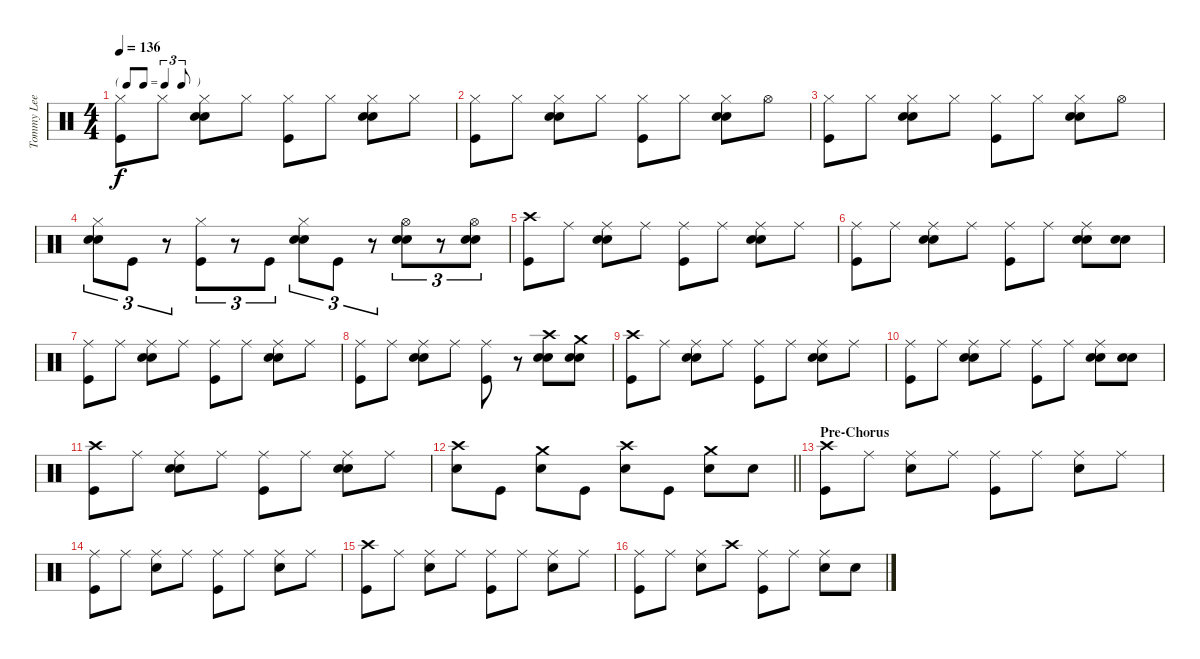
\track ("Tommy Lee" "Tommy Lee") {instrument percussion}
\staff {score}
\articulation defaults
\ts (4 4)
\tf triplet8th
\tempo 136
\clef neutral
\ks c
("Hi-Hat (closed)" "Kick (hit)").8{dy f} "Hi-Hat (closed)".8 ("Hi-Hat (closed)" "Hand Clap (hit)" "Snare (hit) 2").8 "Hi-Hat (closed)".8 ("Hi-Hat (closed)" "Kick (hit)").8 "Hi-Hat (closed)".8 ("Hi-Hat (closed)" "Hand Clap (hit)" "Snare (hit) 2").8 "Hi-Hat (closed)".8 |
("Hi-Hat (closed)" "Kick (hit)").8 "Hi-Hat (closed)".8 ("Hi-Hat (closed)" "Hand Clap (hit)" "Snare (hit) 2").8 "Hi-Hat (closed)".8 ("Hi-Hat (closed)" "Kick (hit)").8 "Hi-Hat (closed)".8 ("Hi-Hat (closed)" "Hand Clap (hit)" "Snare (hit) 2").8 "Hi-Hat (open)".8 |
("Hi-Hat (closed)" "Kick (hit)").8 "Hi-Hat (closed)".8 ("Hi-Hat (closed)" "Hand Clap (hit)" "Snare (hit) 2").8 "Hi-Hat (closed)".8 ("Hi-Hat (closed)" "Kick (hit)").8 "Hi-Hat (closed)".8 ("Hi-Hat (closed)" "Hand Clap (hit)" "Snare (hit) 2").8 "Hi-Hat (open)".8 |
("Hi-Hat (closed)" "Hand Clap (hit)" "Snare (hit) 2").8{tu (3 2)} "Kick (hit)".8{tu (3 2)} r.8{tu (3 2)} ("Hi-Hat (closed)" "Kick (hit)").8{tu (3 2)} r.8{tu (3 2)} "Kick (hit)".8{tu (3 2)} ("Hi-Hat (closed)" "Hand Clap (hit)" "Snare (hit) 2").8{tu (3 2)} "Kick (hit)".8{tu (3 2)} r.8{tu (3 2)} ("Hi-Hat (open)" "Hand Clap (hit)" "Snare (hit) 2").8{tu (3 2)} r.8{tu (3 2)} ("Hi-Hat (open)" "Hand Clap (hit)" "Snare (hit) 2").8{tu (3 2)} |
("Crash high (hit)" "Kick (hit)").8 "Ride (middle)".8 ("Ride (middle)" "Hand Clap (hit)" "Snare (hit) 2").8 "Ride (middle)".8 ("Ride (middle)" "Kick (hit)").8 "Ride (middle)".8 ("Ride (middle)" "Hand Clap (hit)" "Snare (hit) 2").8 "Ride (middle)".8 |
("Ride (middle)" "Kick (hit)").8 "Ride (middle)".8 ("Ride (middle)" "Hand Clap (hit)" "Snare (hit) 2").8 "Ride (middle)".8 ("Ride (middle)" "Kick (hit)").8 "Ride (middle)".8 ("Ride (middle)" "Hand Clap (hit)" "Snare (hit) 2").8 ("Hand Clap (hit)" "Snare (hit) 2").8 |
("Ride (middle)" "Kick (hit)").8 "Ride (middle)".8 ("Ride (middle)" "Hand Clap (hit)" "Snare (hit) 2").8 "Ride (middle)".8 ("Ride (middle)" "Kick (hit)").8 "Ride (middle)".8 ("Ride (middle)" "Hand Clap (hit)" "Snare (hit) 2").8 "Ride (middle)".8 |
("Ride (middle)" "Kick (hit)").8 "Ride (middle)".8 ("Ride (middle)" "Hand Clap (hit)" "Snare (hit) 2").8 "Ride (middle)".8 ("Ride (middle)" "Kick (hit)").8 r.8 ("Crash high (hit)" "Hand Clap (hit)" "Snare (hit) 2").8 ("Crash medium (hit)" "Hand Clap (hit)" "Snare (hit) 2").8 |
("Crash high (hit)" "Kick (hit)").8 "Ride (middle)".8 ("Ride (middle)" "Hand Clap (hit)" "Snare (hit) 2").8 "Ride (middle)".8 ("Ride (middle)" "Kick (hit)").8 "Ride (middle)".8 ("Ride (middle)" "Hand Clap (hit)" "Snare (hit) 2").8 "Ride (middle)".8 |
("Ride (middle)" "Kick (hit)").8 "Ride (middle)".8 ("Ride (middle)" "Hand Clap (hit)" "Snare (hit) 2").8 "Ride (middle)".8 ("Ride (middle)" "Kick (hit)").8 "Ride (middle)".8 ("Ride (middle)" "Hand Clap (hit)" "Snare (hit) 2").8 ("Hand Clap (hit)" "Snare (hit) 2").8 |
("Crash high (hit)" "Kick (hit)").8 "Ride (middle)".8 ("Ride (middle)" "Hand Clap (hit)" "Snare (hit) 2").8 "Ride (middle)".8 ("Ride (middle)" "Kick (hit)").8 "Ride (middle)".8 ("Ride (middle)" "Hand Clap (hit)" "Snare (hit) 2").8 "Ride (middle)".8 |
\barLineRight lightlight
("Crash high (hit)" "Snare (hit) 2").8 "Kick (hit)".8 ("Crash medium (hit)" "Snare (hit) 2").8 "Kick (hit)".8 ("Crash high (hit)" "Snare (hit) 2").8 "Kick (hit)".8 ("Crash medium (hit)" "Snare (hit) 2").8 "Snare (hit) 2".8 |
\section ("" "Pre-Chorus")
("Crash high (hit)" "Kick (hit)").8 "Ride (middle)".8 ("Ride (middle)" "Snare (hit) 2").8 "Ride (middle)".8 ("Ride (middle)" "Kick (hit)").8 "Ride (middle)".8 ("Ride (middle)" "Snare (hit) 2").8 "Ride (middle)".8 |
("Ride (middle)" "Kick (hit)").8 "Ride (middle)".8 ("Ride (middle)" "Snare (hit) 2").8 "Ride (middle)".8 ("Ride (middle)" "Kick (hit)").8 "Ride (middle)".8 ("Ride (middle)" "Snare (hit) 2").8 "Ride (middle)".8 |
("Crash high (hit)" "Kick (hit)").8 "Ride (middle)".8 ("Ride (middle)" "Snare (hit) 2").8 "Ride (middle)".8 ("Ride (middle)" "Kick (hit)").8 "Ride (middle)".8 ("Ride (middle)" "Snare (hit) 2").8 "Ride (middle)".8 |
("Ride (middle)" "Kick (hit)").8 "Ride (middle)".8 ("Ride (middle)" "Snare (hit) 2").8 "Crash high (hit)".8 ("Ride (middle)" "Kick (hit)").8 "Ride (middle)".8 ("Ride (middle)" "Snare (hit) 2").8 "Snare (hit) 2".8
